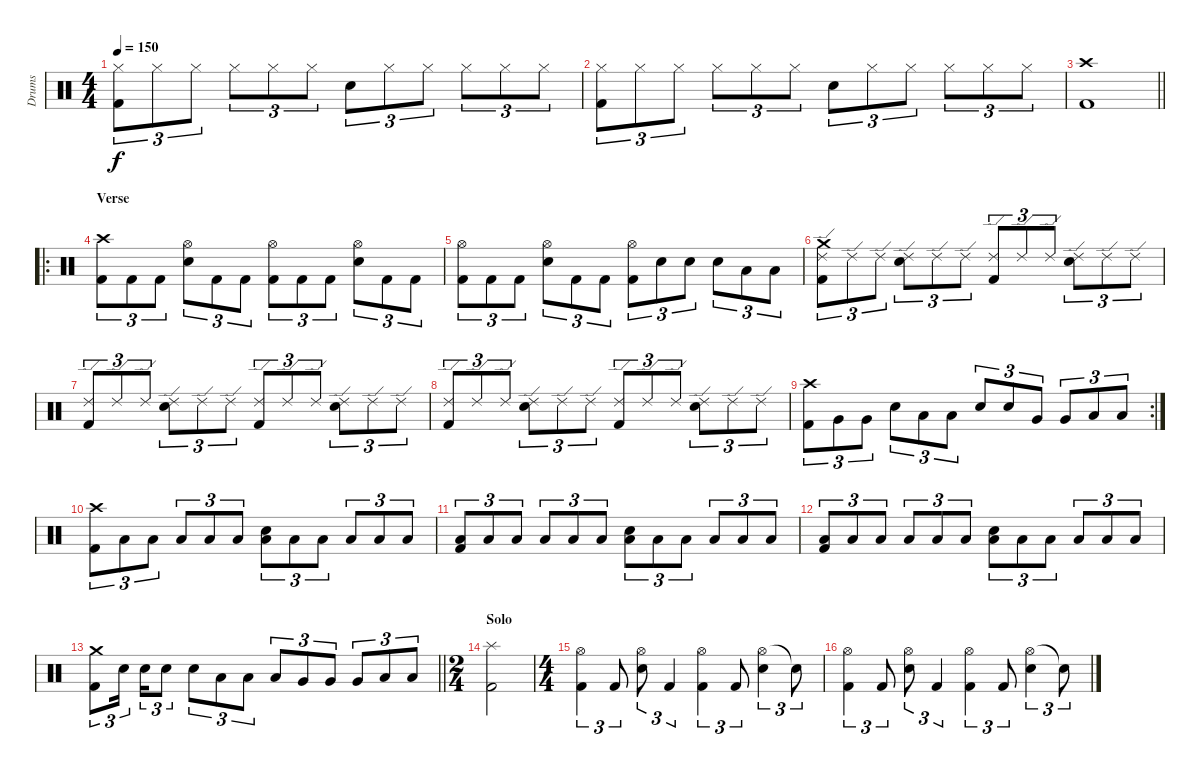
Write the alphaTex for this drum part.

\track ("Drums" "Drums") {instrument percussion}
\staff {score}
\articulation defaults
\ts (4 4)
\tempo 150
\clef neutral
\ks c
("Hi-Hat (closed)" "Kick (hit) 2").8{tu (3 2) dy f} "Hi-Hat (closed)".8{tu (3 2)} "Hi-Hat (closed)".8{tu (3 2)} "Hi-Hat (closed)".8{tu (3 2)} "Hi-Hat (closed)".8{tu (3 2)} "Hi-Hat (closed)".8{tu (3 2)} "Electric Snare (hit)".8{tu (3 2)} "Hi-Hat (closed)".8{tu (3 2)} "Hi-Hat (closed)".8{tu (3 2)} "Hi-Hat (closed)".8{tu (3 2)} "Hi-Hat (closed)".8{tu (3 2)} "Hi-Hat (closed)".8{tu (3 2)} |
("Hi-Hat (closed)" "Kick (hit) 2").8{tu (3 2)} "Hi-Hat (closed)".8{tu (3 2)} "Hi-Hat (closed)".8{tu (3 2)} "Hi-Hat (closed)".8{tu (3 2)} "Hi-Hat (closed)".8{tu (3 2)} "Hi-Hat (closed)".8{tu (3 2)} "Electric Snare (hit)".8{tu (3 2)} "Hi-Hat (closed)".8{tu (3 2)} "Hi-Hat (closed)".8{tu (3 2)} "Hi-Hat (closed)".8{tu (3 2)} "Hi-Hat (closed)".8{tu (3 2)} "Hi-Hat (closed)".8{tu (3 2)} |
\barLineRight lightlight
("Crash high (hit)" "Kick (hit) 2").1 |
\ro
\section ("" "Verse")
("Crash high (hit)" "Kick (hit) 2").8{tu (3 2)} "Kick (hit) 2".8{tu (3 2)} "Kick (hit) 2".8{tu (3 2)} ("Hi-Hat (open)" "Electric Snare (hit)").8{tu (3 2)} "Kick (hit) 2".8{tu (3 2)} "Kick (hit) 2".8{tu (3 2)} ("Hi-Hat (open)" "Kick (hit) 2").8{tu (3 2)} "Kick (hit) 2".8{tu (3 2)} "Kick (hit) 2".8{tu (3 2)} ("Hi-Hat (open)" "Electric Snare (hit)").8{tu (3 2)} "Kick (hit) 2".8{tu (3 2)} "Kick (hit) 2".8{tu (3 2)} |
("Hi-Hat (open)" "Kick (hit) 2").8{tu (3 2)} "Kick (hit) 2".8{tu (3 2)} "Kick (hit) 2".8{tu (3 2)} ("Hi-Hat (open)" "Electric Snare (hit)").8{tu (3 2)} "Kick (hit) 2".8{tu (3 2)} "Kick (hit) 2".8{tu (3 2)} ("Hi-Hat (open)" "Kick (hit) 2").8{tu (3 2)} "Electric Snare (hit)".8{tu (3 2)} "Electric Snare (hit)".8{tu (3 2)} "Electric Snare (hit)".8{tu (3 2)} "Low Floor Tom (hit)".8{tu (3 2)} "Low Floor Tom (hit)".8{tu (3 2)} |
("Ride (edge) 2" "Crash medium (hit)" "Kick (hit) 2").8{tu (3 2)} "Ride (edge) 2".8{tu (3 2)} "Ride (edge) 2".8{tu (3 2)} ("Ride (edge) 2" "Electric Snare (hit)").8{tu (3 2)} "Ride (edge) 2".8{tu (3 2)} "Ride (edge) 2".8{tu (3 2)} ("Ride (edge) 2" "Kick (hit) 2").8{tu (3 2)} "Ride (edge) 2".8{tu (3 2)} "Ride (edge) 2".8{tu (3 2)} ("Ride (edge) 2" "Electric Snare (hit)").8{tu (3 2)} "Ride (edge) 2".8{tu (3 2)} "Ride (edge) 2".8{tu (3 2)} |
("Ride (edge) 2" "Kick (hit) 2").8{tu (3 2)} "Ride (edge) 2".8{tu (3 2)} "Ride (edge) 2".8{tu (3 2)} ("Ride (edge) 2" "Electric Snare (hit)").8{tu (3 2)} "Ride (edge) 2".8{tu (3 2)} "Ride (edge) 2".8{tu (3 2)} ("Ride (edge) 2" "Kick (hit) 2").8{tu (3 2)} "Ride (edge) 2".8{tu (3 2)} "Ride (edge) 2".8{tu (3 2)} ("Ride (edge) 2" "Electric Snare (hit)").8{tu (3 2)} "Ride (edge) 2".8{tu (3 2)} "Ride (edge) 2".8{tu (3 2)} |
("Ride (edge) 2" "Kick (hit) 2").8{tu (3 2)} "Ride (edge) 2".8{tu (3 2)} "Ride (edge) 2".8{tu (3 2)} ("Ride (edge) 2" "Electric Snare (hit)").8{tu (3 2)} "Ride (edge) 2".8{tu (3 2)} "Ride (edge) 2".8{tu (3 2)} ("Ride (edge) 2" "Kick (hit) 2").8{tu (3 2)} "Ride (edge) 2".8{tu (3 2)} "Ride (edge) 2".8{tu (3 2)} ("Ride (edge) 2" "Electric Snare (hit)").8{tu (3 2)} "Ride (edge) 2".8{tu (3 2)} "Ride (edge) 2".8{tu (3 2)} |
\rc 2
("Crash high (hit)" "Kick (hit) 2").8{tu (3 2)} "Very Low Tom (hit)".8{tu (3 2)} "Very Low Tom (hit)".8{tu (3 2)} "Electric Snare (hit)".8{tu (3 2)} "Low Floor Tom (hit)".8{tu (3 2)} "Low Floor Tom (hit)".8{tu (3 2)} "Electric Snare (hit)".8{tu (3 2)} "Electric Snare (hit)".8{tu (3 2)} "Very Low Tom (hit)".8{tu (3 2)} "Very Low Tom (hit)".8{tu (3 2)} "Low Floor Tom (hit)".8{tu (3 2)} "Low Floor Tom (hit)".8{tu (3 2)} |
("Crash high (hit)" "Kick (hit) 2").8{tu (3 2)} "Low Floor Tom (hit)".8{tu (3 2)} "Low Floor Tom (hit)".8{tu (3 2)} "Low Floor Tom (hit)".8{tu (3 2)} "Low Floor Tom (hit)".8{tu (3 2)} "Low Floor Tom (hit)".8{tu (3 2)} ("Electric Snare (hit)" "Low Floor Tom (hit)").8{tu (3 2)} "Low Floor Tom (hit)".8{tu (3 2)} "Low Floor Tom (hit)".8{tu (3 2)} "Low Floor Tom (hit)".8{tu (3 2)} "Low Floor Tom (hit)".8{tu (3 2)} "Low Floor Tom (hit)".8{tu (3 2)} |
("Kick (hit) 2" "Low Floor Tom (hit)").8{tu (3 2)} "Low Floor Tom (hit)".8{tu (3 2)} "Low Floor Tom (hit)".8{tu (3 2)} "Low Floor Tom (hit)".8{tu (3 2)} "Low Floor Tom (hit)".8{tu (3 2)} "Low Floor Tom (hit)".8{tu (3 2)} ("Electric Snare (hit)" "Low Floor Tom (hit)").8{tu (3 2)} "Low Floor Tom (hit)".8{tu (3 2)} "Low Floor Tom (hit)".8{tu (3 2)} "Low Floor Tom (hit)".8{tu (3 2)} "Low Floor Tom (hit)".8{tu (3 2)} "Low Floor Tom (hit)".8{tu (3 2)} |
("Kick (hit) 2" "Low Floor Tom (hit)").8{tu (3 2)} "Low Floor Tom (hit)".8{tu (3 2)} "Low Floor Tom (hit)".8{tu (3 2)} "Low Floor Tom (hit)".8{tu (3 2)} "Low Floor Tom (hit)".8{tu (3 2)} "Low Floor Tom (hit)".8{tu (3 2)} ("Electric Snare (hit)" "Low Floor Tom (hit)").8{tu (3 2)} "Low Floor Tom (hit)".8{tu (3 2)} "Low Floor Tom (hit)".8{tu (3 2)} "Low Floor Tom (hit)".8{tu (3 2)} "Low Floor Tom (hit)".8{tu (3 2)} "Low Floor Tom (hit)".8{tu (3 2)} |
\barLineRight lightlight
("Crash medium (hit)" "Kick (hit) 2").8{tu (3 2)} "Electric Snare (hit)".16{tu (3 2) beam splitsecondary} "Electric Snare (hit)".16{tu (3 2)} "Electric Snare (hit)".8{tu (3 2)} "Electric Snare (hit)".8{tu (3 2)} "Low Tom (hit)".8{tu (3 2)} "Low Tom (hit)".8{tu (3 2)} "Low Tom (hit)".8{tu (3 2)} "Very Low Tom (hit)".8{tu (3 2)} "Very Low Tom (hit)".8{tu (3 2)} "Very Low Tom (hit)".8{tu (3 2)} "Low Floor Tom (hit)".8{tu (3 2)} "Low Floor Tom (hit)".8{tu (3 2)} |
\ts (2 4)
\section ("" "Solo")
("Splash (hit)" "Kick (hit) 2").2 |
\ts (4 4)
("Hi-Hat (open)" "Kick (hit) 2").4{tu (3 2)} "Kick (hit) 2".8{tu (3 2)} ("Hi-Hat (open)" "Electric Snare (hit)").8{tu (3 2)} "Kick (hit) 2".4{tu (3 2)} ("Hi-Hat (open)" "Kick (hit) 2").4{tu (3 2)} "Kick (hit) 2".8{tu (3 2)} ("Hi-Hat (open)" "Electric Snare (hit)").4{tu (3 2)} "Snare (hit)"{t}.8{tu (3 2)} |
("Hi-Hat (open)" "Kick (hit) 2").4{tu (3 2)} "Kick (hit) 2".8{tu (3 2)} ("Hi-Hat (open)" "Electric Snare (hit)").8{tu (3 2)} "Kick (hit) 2".4{tu (3 2)} ("Hi-Hat (open)" "Kick (hit) 2").4{tu (3 2)} "Kick (hit) 2".8{tu (3 2)} ("Hi-Hat (open)" "Electric Snare (hit)").4{tu (3 2)} "Snare (hit)"{t}.8{tu (3 2)}
